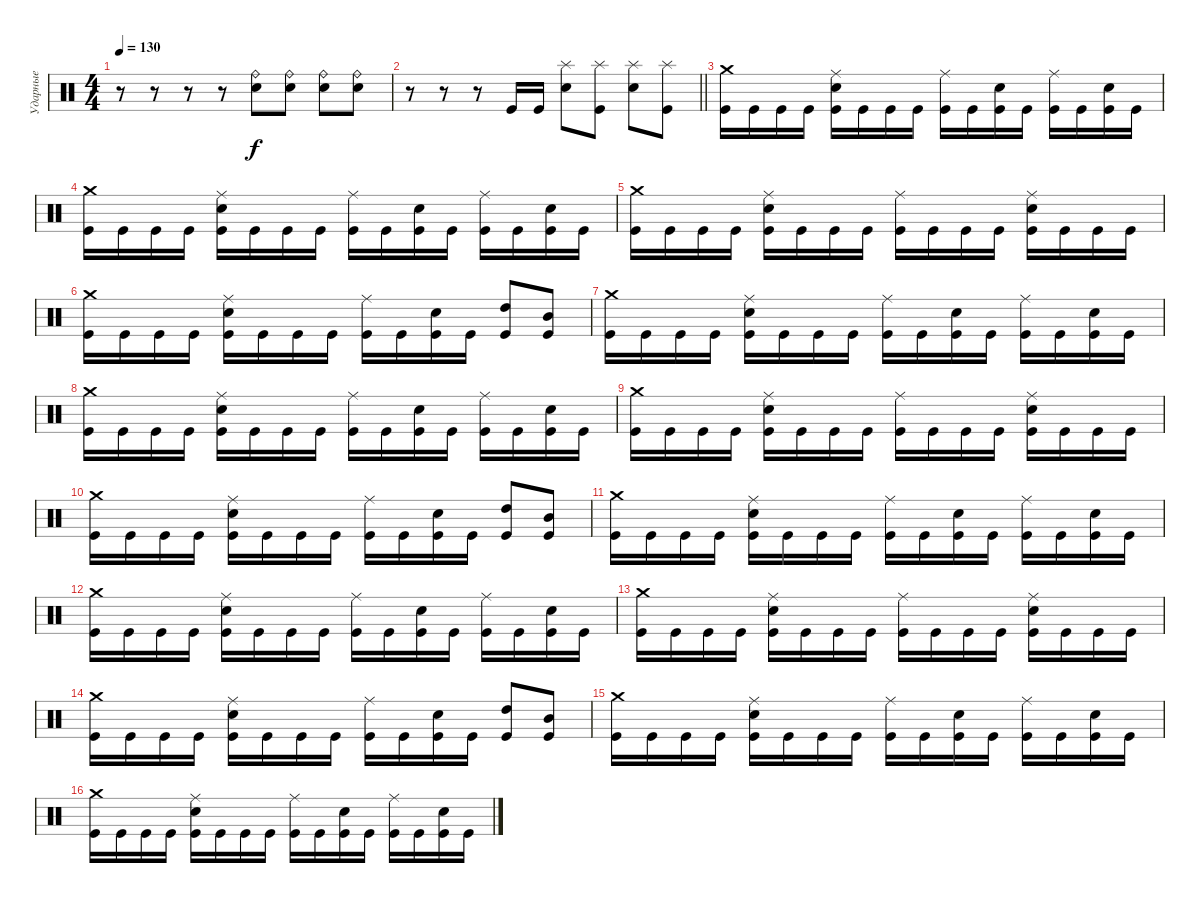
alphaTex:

\track ("Ударные" "Ударные") {instrument percussion}
\staff {score}
\articulation defaults
\ts (4 4)
\tempo 130
\clef neutral
\ks c
r.8{dy f} r.8 r.8 r.8 ("Ride (bell)" "Electric Snare (hit)").8 ("Ride (bell)" "Electric Snare (hit)").8 ("Ride (bell)" "Electric Snare (hit)").8 ("Ride (bell)" "Electric Snare (hit)").8 |
\barLineRight lightlight
r.8 r.8 r.8 "Kick (hit)".16 "Kick (hit)".16 ("Splash (hit)" "Electric Snare (hit)").8 ("Splash (hit)" "Kick (hit)").8 ("Splash (hit)" "Electric Snare (hit)").8 ("Splash (hit)" "Kick (hit)").8 |
\section ("" " ")
("Crash medium (hit)" "Kick (hit)").16 "Kick (hit)".16 "Kick (hit)".16 "Kick (hit)".16 ("Ride (middle)" "Electric Snare (hit)" "Kick (hit)").16 "Kick (hit)".16 "Kick (hit)".16 "Kick (hit)".16 ("Ride (middle)" "Kick (hit)").16 "Kick (hit)".16 ("Electric Snare (hit)" "Kick (hit)").16 "Kick (hit)".16 ("Ride (middle)" "Kick (hit)").16 "Kick (hit)".16 ("Electric Snare (hit)" "Kick (hit)").16 "Kick (hit)".16 |
("Crash medium (hit)" "Kick (hit)").16 "Kick (hit)".16 "Kick (hit)".16 "Kick (hit)".16 ("Ride (middle)" "Electric Snare (hit)" "Kick (hit)").16 "Kick (hit)".16 "Kick (hit)".16 "Kick (hit)".16 ("Ride (middle)" "Kick (hit)").16 "Kick (hit)".16 ("Electric Snare (hit)" "Kick (hit)").16 "Kick (hit)".16 ("Ride (middle)" "Kick (hit)").16 "Kick (hit)".16 ("Electric Snare (hit)" "Kick (hit)").16 "Kick (hit)".16 |
("Crash medium (hit)" "Kick (hit)").16 "Kick (hit)".16 "Kick (hit)".16 "Kick (hit)".16 ("Ride (middle)" "Electric Snare (hit)" "Kick (hit)").16 "Kick (hit)".16 "Kick (hit)".16 "Kick (hit)".16 ("Ride (middle)" "Kick (hit)").16 "Kick (hit)".16 "Kick (hit)".16 "Kick (hit)".16 ("Ride (middle)" "Electric Snare (hit)" "Kick (hit)").16 "Kick (hit)".16 "Kick (hit)".16 "Kick (hit)".16 |
("Crash medium (hit)" "Kick (hit)").16 "Kick (hit)".16 "Kick (hit)".16 "Kick (hit)".16 ("Ride (middle)" "Electric Snare (hit)" "Kick (hit)").16 "Kick (hit)".16 "Kick (hit)".16 "Kick (hit)".16 ("Ride (middle)" "Kick (hit)").16 "Kick (hit)".16 ("Electric Snare (hit)" "Kick (hit)").16 "Kick (hit)".16 ("High Tom (hit)" "Kick (hit)").8 ("Mid Tom (hit)" "Kick (hit)").8 |
("Crash medium (hit)" "Kick (hit)").16 "Kick (hit)".16 "Kick (hit)".16 "Kick (hit)".16 ("Ride (middle)" "Electric Snare (hit)" "Kick (hit)").16 "Kick (hit)".16 "Kick (hit)".16 "Kick (hit)".16 ("Ride (middle)" "Kick (hit)").16 "Kick (hit)".16 ("Electric Snare (hit)" "Kick (hit)").16 "Kick (hit)".16 ("Ride (middle)" "Kick (hit)").16 "Kick (hit)".16 ("Electric Snare (hit)" "Kick (hit)").16 "Kick (hit)".16 |
("Crash medium (hit)" "Kick (hit)").16 "Kick (hit)".16 "Kick (hit)".16 "Kick (hit)".16 ("Ride (middle)" "Electric Snare (hit)" "Kick (hit)").16 "Kick (hit)".16 "Kick (hit)".16 "Kick (hit)".16 ("Ride (middle)" "Kick (hit)").16 "Kick (hit)".16 ("Electric Snare (hit)" "Kick (hit)").16 "Kick (hit)".16 ("Ride (middle)" "Kick (hit)").16 "Kick (hit)".16 ("Electric Snare (hit)" "Kick (hit)").16 "Kick (hit)".16 |
("Crash medium (hit)" "Kick (hit)").16 "Kick (hit)".16 "Kick (hit)".16 "Kick (hit)".16 ("Ride (middle)" "Electric Snare (hit)" "Kick (hit)").16 "Kick (hit)".16 "Kick (hit)".16 "Kick (hit)".16 ("Ride (middle)" "Kick (hit)").16 "Kick (hit)".16 "Kick (hit)".16 "Kick (hit)".16 ("Ride (middle)" "Electric Snare (hit)" "Kick (hit)").16 "Kick (hit)".16 "Kick (hit)".16 "Kick (hit)".16 |
("Crash medium (hit)" "Kick (hit)").16 "Kick (hit)".16 "Kick (hit)".16 "Kick (hit)".16 ("Ride (middle)" "Electric Snare (hit)" "Kick (hit)").16 "Kick (hit)".16 "Kick (hit)".16 "Kick (hit)".16 ("Ride (middle)" "Kick (hit)").16 "Kick (hit)".16 ("Electric Snare (hit)" "Kick (hit)").16 "Kick (hit)".16 ("High Tom (hit)" "Kick (hit)").8 ("Mid Tom (hit)" "Kick (hit)").8 |
("Crash medium (hit)" "Kick (hit)").16 "Kick (hit)".16 "Kick (hit)".16 "Kick (hit)".16 ("Ride (middle)" "Electric Snare (hit)" "Kick (hit)").16 "Kick (hit)".16 "Kick (hit)".16 "Kick (hit)".16 ("Ride (middle)" "Kick (hit)").16 "Kick (hit)".16 ("Electric Snare (hit)" "Kick (hit)").16 "Kick (hit)".16 ("Ride (middle)" "Kick (hit)").16 "Kick (hit)".16 ("Electric Snare (hit)" "Kick (hit)").16 "Kick (hit)".16 |
("Crash medium (hit)" "Kick (hit)").16 "Kick (hit)".16 "Kick (hit)".16 "Kick (hit)".16 ("Ride (middle)" "Electric Snare (hit)" "Kick (hit)").16 "Kick (hit)".16 "Kick (hit)".16 "Kick (hit)".16 ("Ride (middle)" "Kick (hit)").16 "Kick (hit)".16 ("Electric Snare (hit)" "Kick (hit)").16 "Kick (hit)".16 ("Ride (middle)" "Kick (hit)").16 "Kick (hit)".16 ("Electric Snare (hit)" "Kick (hit)").16 "Kick (hit)".16 |
("Crash medium (hit)" "Kick (hit)").16 "Kick (hit)".16 "Kick (hit)".16 "Kick (hit)".16 ("Ride (middle)" "Electric Snare (hit)" "Kick (hit)").16 "Kick (hit)".16 "Kick (hit)".16 "Kick (hit)".16 ("Ride (middle)" "Kick (hit)").16 "Kick (hit)".16 "Kick (hit)".16 "Kick (hit)".16 ("Ride (middle)" "Electric Snare (hit)" "Kick (hit)").16 "Kick (hit)".16 "Kick (hit)".16 "Kick (hit)".16 |
("Crash medium (hit)" "Kick (hit)").16 "Kick (hit)".16 "Kick (hit)".16 "Kick (hit)".16 ("Ride (middle)" "Electric Snare (hit)" "Kick (hit)").16 "Kick (hit)".16 "Kick (hit)".16 "Kick (hit)".16 ("Ride (middle)" "Kick (hit)").16 "Kick (hit)".16 ("Electric Snare (hit)" "Kick (hit)").16 "Kick (hit)".16 ("High Tom (hit)" "Kick (hit)").8 ("Mid Tom (hit)" "Kick (hit)").8 |
("Crash medium (hit)" "Kick (hit)").16 "Kick (hit)".16 "Kick (hit)".16 "Kick (hit)".16 ("Ride (middle)" "Electric Snare (hit)" "Kick (hit)").16 "Kick (hit)".16 "Kick (hit)".16 "Kick (hit)".16 ("Ride (middle)" "Kick (hit)").16 "Kick (hit)".16 ("Electric Snare (hit)" "Kick (hit)").16 "Kick (hit)".16 ("Ride (middle)" "Kick (hit)").16 "Kick (hit)".16 ("Electric Snare (hit)" "Kick (hit)").16 "Kick (hit)".16 |
("Crash medium (hit)" "Kick (hit)").16 "Kick (hit)".16 "Kick (hit)".16 "Kick (hit)".16 ("Ride (middle)" "Electric Snare (hit)" "Kick (hit)").16 "Kick (hit)".16 "Kick (hit)".16 "Kick (hit)".16 ("Ride (middle)" "Kick (hit)").16 "Kick (hit)".16 ("Electric Snare (hit)" "Kick (hit)").16 "Kick (hit)".16 ("Ride (middle)" "Kick (hit)").16 "Kick (hit)".16 ("Electric Snare (hit)" "Kick (hit)").16 "Kick (hit)".16
